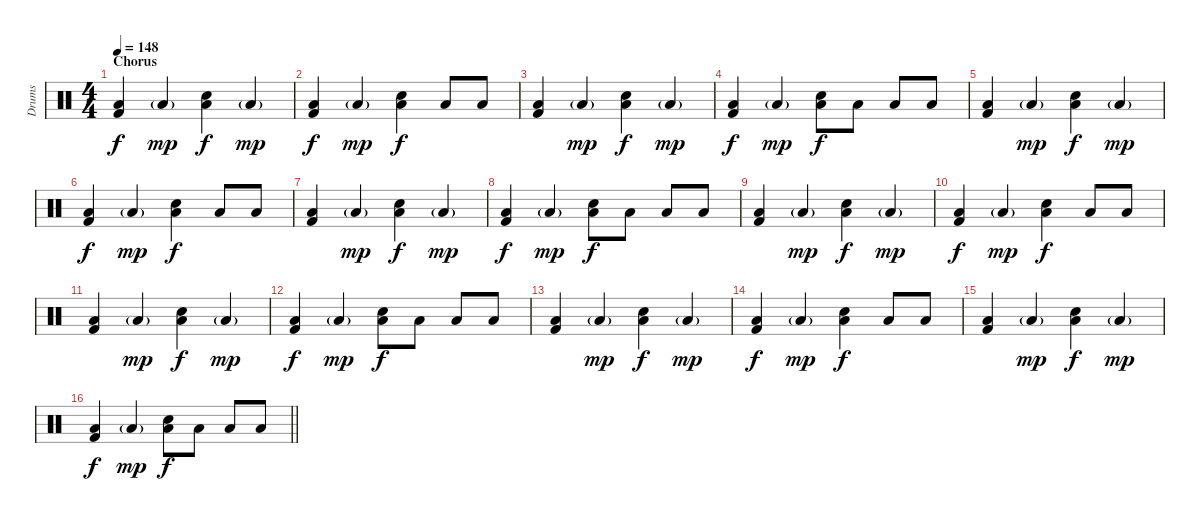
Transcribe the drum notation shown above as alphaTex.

\track ("Drums" "Drums") {instrument percussion}
\staff {score}
\articulation defaults
\ts (4 4)
\section ("" "Chorus")
\tempo 148
\clef neutral
\ks c
("Kick (hit) 2" "Low Floor Tom (hit)").4{dy f} "Low Floor Tom (hit)"{g}.4{dy mp} ("Electric Snare (hit)" "Low Floor Tom (hit)").4{dy f} "Low Floor Tom (hit)"{g}.4{dy mp} |
("Kick (hit) 2" "Low Floor Tom (hit)").4{dy f} "Low Floor Tom (hit)"{g}.4{dy mp} ("Electric Snare (hit)" "Low Floor Tom (hit)").4{dy f} "Low Floor Tom (hit)".8 "Low Floor Tom (hit)".8 |
("Kick (hit) 2" "Low Floor Tom (hit)").4 "Low Floor Tom (hit)"{g}.4{dy mp} ("Electric Snare (hit)" "Low Floor Tom (hit)").4{dy f} "Low Floor Tom (hit)"{g}.4{dy mp} |
("Kick (hit) 2" "Low Floor Tom (hit)").4{dy f} "Low Floor Tom (hit)"{g}.4{dy mp} ("Electric Snare (hit)" "Low Floor Tom (hit)").8{dy f} "Low Floor Tom (hit)".8 "Low Floor Tom (hit)".8 "Low Floor Tom (hit)".8 |
("Kick (hit) 2" "Low Floor Tom (hit)").4 "Low Floor Tom (hit)"{g}.4{dy mp} ("Electric Snare (hit)" "Low Floor Tom (hit)").4{dy f} "Low Floor Tom (hit)"{g}.4{dy mp} |
("Kick (hit) 2" "Low Floor Tom (hit)").4{dy f} "Low Floor Tom (hit)"{g}.4{dy mp} ("Electric Snare (hit)" "Low Floor Tom (hit)").4{dy f} "Low Floor Tom (hit)".8 "Low Floor Tom (hit)".8 |
("Kick (hit) 2" "Low Floor Tom (hit)").4 "Low Floor Tom (hit)"{g}.4{dy mp} ("Electric Snare (hit)" "Low Floor Tom (hit)").4{dy f} "Low Floor Tom (hit)"{g}.4{dy mp} |
("Kick (hit) 2" "Low Floor Tom (hit)").4{dy f} "Low Floor Tom (hit)"{g}.4{dy mp} ("Electric Snare (hit)" "Low Floor Tom (hit)").8{dy f} "Low Floor Tom (hit)".8 "Low Floor Tom (hit)".8 "Low Floor Tom (hit)".8 |
("Kick (hit) 2" "Low Floor Tom (hit)").4 "Low Floor Tom (hit)"{g}.4{dy mp} ("Electric Snare (hit)" "Low Floor Tom (hit)").4{dy f} "Low Floor Tom (hit)"{g}.4{dy mp} |
("Kick (hit) 2" "Low Floor Tom (hit)").4{dy f} "Low Floor Tom (hit)"{g}.4{dy mp} ("Electric Snare (hit)" "Low Floor Tom (hit)").4{dy f} "Low Floor Tom (hit)".8 "Low Floor Tom (hit)".8 |
("Kick (hit) 2" "Low Floor Tom (hit)").4 "Low Floor Tom (hit)"{g}.4{dy mp} ("Electric Snare (hit)" "Low Floor Tom (hit)").4{dy f} "Low Floor Tom (hit)"{g}.4{dy mp} |
("Kick (hit) 2" "Low Floor Tom (hit)").4{dy f} "Low Floor Tom (hit)"{g}.4{dy mp} ("Electric Snare (hit)" "Low Floor Tom (hit)").8{dy f} "Low Floor Tom (hit)".8 "Low Floor Tom (hit)".8 "Low Floor Tom (hit)".8 |
("Kick (hit) 2" "Low Floor Tom (hit)").4 "Low Floor Tom (hit)"{g}.4{dy mp} ("Electric Snare (hit)" "Low Floor Tom (hit)").4{dy f} "Low Floor Tom (hit)"{g}.4{dy mp} |
("Kick (hit) 2" "Low Floor Tom (hit)").4{dy f} "Low Floor Tom (hit)"{g}.4{dy mp} ("Electric Snare (hit)" "Low Floor Tom (hit)").4{dy f} "Low Floor Tom (hit)".8 "Low Floor Tom (hit)".8 |
("Kick (hit) 2" "Low Floor Tom (hit)").4 "Low Floor Tom (hit)"{g}.4{dy mp} ("Electric Snare (hit)" "Low Floor Tom (hit)").4{dy f} "Low Floor Tom (hit)"{g}.4{dy mp} |
\barLineRight lightlight
("Kick (hit) 2" "Low Floor Tom (hit)").4{dy f} "Low Floor Tom (hit)"{g}.4{dy mp} ("Electric Snare (hit)" "Low Floor Tom (hit)").8{dy f} "Low Floor Tom (hit)".8 "Low Floor Tom (hit)".8 "Low Floor Tom (hit)".8
